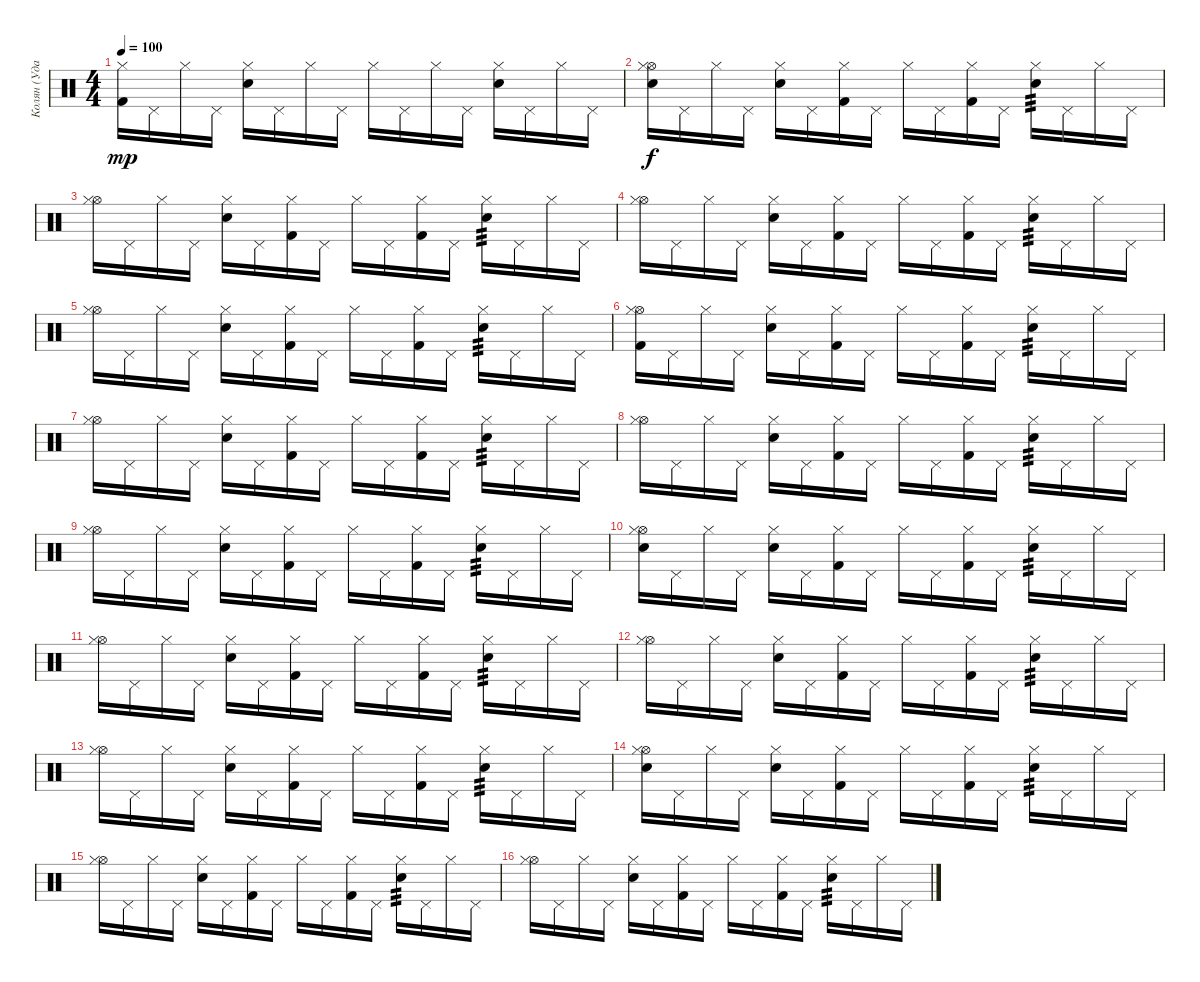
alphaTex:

\track ("Колян (Ударные)" "Колян (Уда") {instrument percussion}
\staff {score}
\articulation defaults
\ts (4 4)
\tempo 100
\clef neutral
\ks c
("Kick (hit) 2" "Hi-Hat (closed)").16{dy mp} "Pedal Hi-Hat (hit)".16 "Hi-Hat (closed)".16 "Pedal Hi-Hat (hit)".16 ("Electric Snare (hit)" "Hi-Hat (closed)").16 "Pedal Hi-Hat (hit)".16 "Hi-Hat (closed)".16 "Pedal Hi-Hat (hit)".16 "Hi-Hat (closed)".16 "Pedal Hi-Hat (hit)".16 "Hi-Hat (closed)".16 "Pedal Hi-Hat (hit)".16 ("Electric Snare (hit)" "Hi-Hat (closed)").16 "Pedal Hi-Hat (hit)".16 "Hi-Hat (closed)".16 "Pedal Hi-Hat (hit)".16 |
("Snare (hit) 2" "Hi-Hat (open)" "Hi-Hat (closed)").16{dy f} "Pedal Hi-Hat (hit)".16 "Hi-Hat (closed)".16 "Pedal Hi-Hat (hit)".16 ("Snare (hit) 2" "Hi-Hat (closed)").16 "Pedal Hi-Hat (hit)".16 ("Kick (hit) 2" "Hi-Hat (closed)").16 "Pedal Hi-Hat (hit)".16 "Hi-Hat (closed)".16 "Pedal Hi-Hat (hit)".16 ("Kick (hit) 2" "Hi-Hat (closed)").16 "Pedal Hi-Hat (hit)".16 ("Snare (hit) 2" "Hi-Hat (closed)").16{tp 3} "Pedal Hi-Hat (hit)".16 "Hi-Hat (closed)".16 "Pedal Hi-Hat (hit)".16 |
("Hi-Hat (open)" "Hi-Hat (closed)").16 "Pedal Hi-Hat (hit)".16 "Hi-Hat (closed)".16 "Pedal Hi-Hat (hit)".16 ("Snare (hit) 2" "Hi-Hat (closed)").16 "Pedal Hi-Hat (hit)".16 ("Kick (hit) 2" "Hi-Hat (closed)").16 "Pedal Hi-Hat (hit)".16 "Hi-Hat (closed)".16 "Pedal Hi-Hat (hit)".16 ("Kick (hit) 2" "Hi-Hat (closed)").16 "Pedal Hi-Hat (hit)".16 ("Snare (hit) 2" "Hi-Hat (closed)").16{tp 3} "Pedal Hi-Hat (hit)".16 "Hi-Hat (closed)".16 "Pedal Hi-Hat (hit)".16 |
("Hi-Hat (open)" "Hi-Hat (closed)").16 "Pedal Hi-Hat (hit)".16 "Hi-Hat (closed)".16 "Pedal Hi-Hat (hit)".16 ("Snare (hit) 2" "Hi-Hat (closed)").16 "Pedal Hi-Hat (hit)".16 ("Kick (hit) 2" "Hi-Hat (closed)").16 "Pedal Hi-Hat (hit)".16 "Hi-Hat (closed)".16 "Pedal Hi-Hat (hit)".16 ("Kick (hit) 2" "Hi-Hat (closed)").16 "Pedal Hi-Hat (hit)".16 ("Snare (hit) 2" "Hi-Hat (closed)").16{tp 3} "Pedal Hi-Hat (hit)".16 "Hi-Hat (closed)".16 "Pedal Hi-Hat (hit)".16 |
("Hi-Hat (open)" "Hi-Hat (closed)").16 "Pedal Hi-Hat (hit)".16 "Hi-Hat (closed)".16 "Pedal Hi-Hat (hit)".16 ("Snare (hit) 2" "Hi-Hat (closed)").16 "Pedal Hi-Hat (hit)".16 ("Kick (hit) 2" "Hi-Hat (closed)").16 "Pedal Hi-Hat (hit)".16 "Hi-Hat (closed)".16 "Pedal Hi-Hat (hit)".16 ("Kick (hit) 2" "Hi-Hat (closed)").16 "Pedal Hi-Hat (hit)".16 ("Snare (hit) 2" "Hi-Hat (closed)").16{tp 3} "Pedal Hi-Hat (hit)".16 "Hi-Hat (closed)".16 "Pedal Hi-Hat (hit)".16 |
("Kick (hit) 2" "Hi-Hat (open)" "Hi-Hat (closed)").16 "Pedal Hi-Hat (hit)".16 "Hi-Hat (closed)".16 "Pedal Hi-Hat (hit)".16 ("Snare (hit) 2" "Hi-Hat (closed)").16 "Pedal Hi-Hat (hit)".16 ("Kick (hit) 2" "Hi-Hat (closed)").16 "Pedal Hi-Hat (hit)".16 "Hi-Hat (closed)".16 "Pedal Hi-Hat (hit)".16 ("Kick (hit) 2" "Hi-Hat (closed)").16 "Pedal Hi-Hat (hit)".16 ("Snare (hit) 2" "Hi-Hat (closed)").16{tp 3} "Pedal Hi-Hat (hit)".16 "Hi-Hat (closed)".16 "Pedal Hi-Hat (hit)".16 |
("Hi-Hat (open)" "Hi-Hat (closed)").16 "Pedal Hi-Hat (hit)".16 "Hi-Hat (closed)".16 "Pedal Hi-Hat (hit)".16 ("Snare (hit) 2" "Hi-Hat (closed)").16 "Pedal Hi-Hat (hit)".16 ("Kick (hit) 2" "Hi-Hat (closed)").16 "Pedal Hi-Hat (hit)".16 "Hi-Hat (closed)".16 "Pedal Hi-Hat (hit)".16 ("Kick (hit) 2" "Hi-Hat (closed)").16 "Pedal Hi-Hat (hit)".16 ("Snare (hit) 2" "Hi-Hat (closed)").16{tp 3} "Pedal Hi-Hat (hit)".16 "Hi-Hat (closed)".16 "Pedal Hi-Hat (hit)".16 |
("Hi-Hat (open)" "Hi-Hat (closed)").16 "Pedal Hi-Hat (hit)".16 "Hi-Hat (closed)".16 "Pedal Hi-Hat (hit)".16 ("Snare (hit) 2" "Hi-Hat (closed)").16 "Pedal Hi-Hat (hit)".16 ("Kick (hit) 2" "Hi-Hat (closed)").16 "Pedal Hi-Hat (hit)".16 "Hi-Hat (closed)".16 "Pedal Hi-Hat (hit)".16 ("Kick (hit) 2" "Hi-Hat (closed)").16 "Pedal Hi-Hat (hit)".16 ("Snare (hit) 2" "Hi-Hat (closed)").16{tp 3} "Pedal Hi-Hat (hit)".16 "Hi-Hat (closed)".16 "Pedal Hi-Hat (hit)".16 |
("Hi-Hat (open)" "Hi-Hat (closed)").16 "Pedal Hi-Hat (hit)".16 "Hi-Hat (closed)".16 "Pedal Hi-Hat (hit)".16 ("Snare (hit) 2" "Hi-Hat (closed)").16 "Pedal Hi-Hat (hit)".16 ("Kick (hit) 2" "Hi-Hat (closed)").16 "Pedal Hi-Hat (hit)".16 "Hi-Hat (closed)".16 "Pedal Hi-Hat (hit)".16 ("Kick (hit) 2" "Hi-Hat (closed)").16 "Pedal Hi-Hat (hit)".16 ("Snare (hit) 2" "Hi-Hat (closed)").16{tp 3} "Pedal Hi-Hat (hit)".16 "Hi-Hat (closed)".16 "Pedal Hi-Hat (hit)".16 |
("Snare (hit) 2" "Hi-Hat (open)" "Hi-Hat (closed)").16 "Pedal Hi-Hat (hit)".16 "Hi-Hat (closed)".16 "Pedal Hi-Hat (hit)".16 ("Snare (hit) 2" "Hi-Hat (closed)").16 "Pedal Hi-Hat (hit)".16 ("Kick (hit) 2" "Hi-Hat (closed)").16 "Pedal Hi-Hat (hit)".16 "Hi-Hat (closed)".16 "Pedal Hi-Hat (hit)".16 ("Kick (hit) 2" "Hi-Hat (closed)").16 "Pedal Hi-Hat (hit)".16 ("Snare (hit) 2" "Hi-Hat (closed)").16{tp 3} "Pedal Hi-Hat (hit)".16 "Hi-Hat (closed)".16 "Pedal Hi-Hat (hit)".16 |
("Hi-Hat (open)" "Hi-Hat (closed)").16 "Pedal Hi-Hat (hit)".16 "Hi-Hat (closed)".16 "Pedal Hi-Hat (hit)".16 ("Snare (hit) 2" "Hi-Hat (closed)").16 "Pedal Hi-Hat (hit)".16 ("Kick (hit) 2" "Hi-Hat (closed)").16 "Pedal Hi-Hat (hit)".16 "Hi-Hat (closed)".16 "Pedal Hi-Hat (hit)".16 ("Kick (hit) 2" "Hi-Hat (closed)").16 "Pedal Hi-Hat (hit)".16 ("Snare (hit) 2" "Hi-Hat (closed)").16{tp 3} "Pedal Hi-Hat (hit)".16 "Hi-Hat (closed)".16 "Pedal Hi-Hat (hit)".16 |
("Hi-Hat (open)" "Hi-Hat (closed)").16 "Pedal Hi-Hat (hit)".16 "Hi-Hat (closed)".16 "Pedal Hi-Hat (hit)".16 ("Snare (hit) 2" "Hi-Hat (closed)").16 "Pedal Hi-Hat (hit)".16 ("Kick (hit) 2" "Hi-Hat (closed)").16 "Pedal Hi-Hat (hit)".16 "Hi-Hat (closed)".16 "Pedal Hi-Hat (hit)".16 ("Kick (hit) 2" "Hi-Hat (closed)").16 "Pedal Hi-Hat (hit)".16 ("Snare (hit) 2" "Hi-Hat (closed)").16{tp 3} "Pedal Hi-Hat (hit)".16 "Hi-Hat (closed)".16 "Pedal Hi-Hat (hit)".16 |
("Hi-Hat (open)" "Hi-Hat (closed)").16 "Pedal Hi-Hat (hit)".16 "Hi-Hat (closed)".16 "Pedal Hi-Hat (hit)".16 ("Snare (hit) 2" "Hi-Hat (closed)").16 "Pedal Hi-Hat (hit)".16 ("Kick (hit) 2" "Hi-Hat (closed)").16 "Pedal Hi-Hat (hit)".16 "Hi-Hat (closed)".16 "Pedal Hi-Hat (hit)".16 ("Kick (hit) 2" "Hi-Hat (closed)").16 "Pedal Hi-Hat (hit)".16 ("Snare (hit) 2" "Hi-Hat (closed)").16{tp 3} "Pedal Hi-Hat (hit)".16 "Hi-Hat (closed)".16 "Pedal Hi-Hat (hit)".16 |
("Snare (hit) 2" "Hi-Hat (open)" "Hi-Hat (closed)").16 "Pedal Hi-Hat (hit)".16 "Hi-Hat (closed)".16 "Pedal Hi-Hat (hit)".16 ("Snare (hit) 2" "Hi-Hat (closed)").16 "Pedal Hi-Hat (hit)".16 ("Kick (hit) 2" "Hi-Hat (closed)").16 "Pedal Hi-Hat (hit)".16 "Hi-Hat (closed)".16 "Pedal Hi-Hat (hit)".16 ("Kick (hit) 2" "Hi-Hat (closed)").16 "Pedal Hi-Hat (hit)".16 ("Snare (hit) 2" "Hi-Hat (closed)").16{tp 3} "Pedal Hi-Hat (hit)".16 "Hi-Hat (closed)".16 "Pedal Hi-Hat (hit)".16 |
("Hi-Hat (open)" "Hi-Hat (closed)").16 "Pedal Hi-Hat (hit)".16 "Hi-Hat (closed)".16 "Pedal Hi-Hat (hit)".16 ("Snare (hit) 2" "Hi-Hat (closed)").16 "Pedal Hi-Hat (hit)".16 ("Kick (hit) 2" "Hi-Hat (closed)").16 "Pedal Hi-Hat (hit)".16 "Hi-Hat (closed)".16 "Pedal Hi-Hat (hit)".16 ("Kick (hit) 2" "Hi-Hat (closed)").16 "Pedal Hi-Hat (hit)".16 ("Snare (hit) 2" "Hi-Hat (closed)").16{tp 3} "Pedal Hi-Hat (hit)".16 "Hi-Hat (closed)".16 "Pedal Hi-Hat (hit)".16 |
("Hi-Hat (open)" "Hi-Hat (closed)").16 "Pedal Hi-Hat (hit)".16 "Hi-Hat (closed)".16 "Pedal Hi-Hat (hit)".16 ("Snare (hit) 2" "Hi-Hat (closed)").16 "Pedal Hi-Hat (hit)".16 ("Kick (hit) 2" "Hi-Hat (closed)").16 "Pedal Hi-Hat (hit)".16 "Hi-Hat (closed)".16 "Pedal Hi-Hat (hit)".16 ("Kick (hit) 2" "Hi-Hat (closed)").16 "Pedal Hi-Hat (hit)".16 ("Snare (hit) 2" "Hi-Hat (closed)").16{tp 3} "Pedal Hi-Hat (hit)".16 "Hi-Hat (closed)".16 "Pedal Hi-Hat (hit)".16
